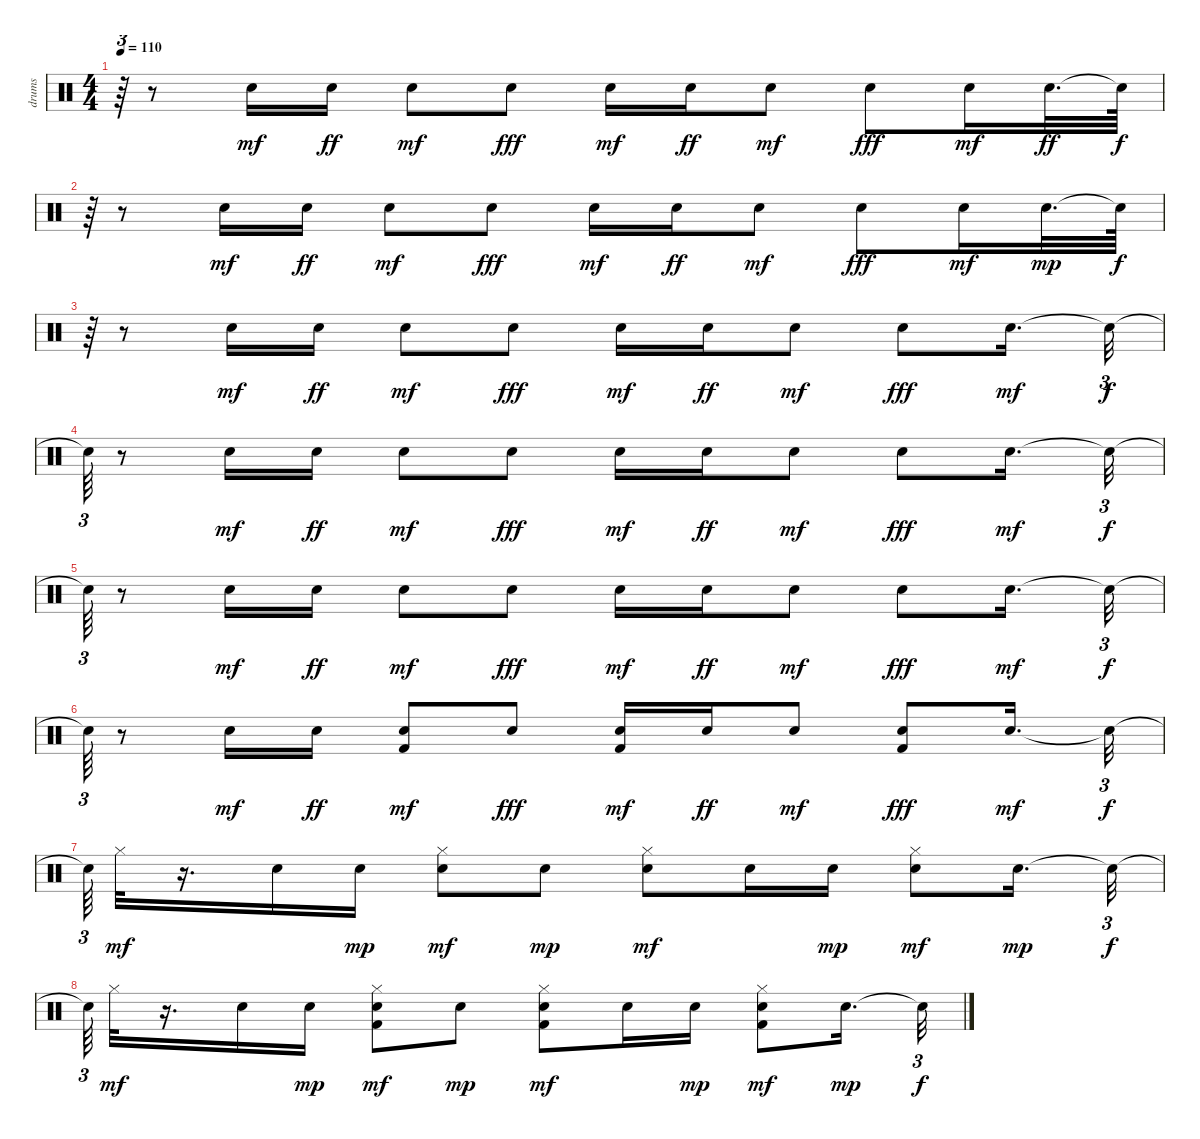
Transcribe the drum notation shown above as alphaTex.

\track ("drums               " "drums     ") {instrument percussion}
\staff {score}
\articulation defaults
\ts (4 4)
\tempo 110
\clef neutral
\ks c
r.64{tu (3 2) dy f} r.8 "Snare (hit) 2".16{dy mf} "Snare (hit) 2".16{dy ff} "Snare (hit) 2".8{dy mf} "Snare (hit) 2".8{dy fff} "Snare (hit) 2".16{dy mf} "Snare (hit) 2".16{dy ff} "Snare (hit) 2".8{dy mf} "Snare (hit) 2".8{dy fff} "Snare (hit) 2".16{dy mf} "Snare (hit) 2".32{d dy ff} "Snare (hit)"{t}.64{dy f} |
r.64{tu (3 2)} r.8 "Snare (hit) 2".16{dy mf} "Snare (hit) 2".16{dy ff} "Snare (hit) 2".8{dy mf} "Snare (hit) 2".8{dy fff} "Snare (hit) 2".16{dy mf} "Snare (hit) 2".16{dy ff} "Snare (hit) 2".8{dy mf} "Snare (hit) 2".8{dy fff} "Snare (hit) 2".16{dy mf} "Snare (hit) 2".32{d dy mp} "Snare (hit)"{t}.64{dy f} |
r.64{tu (3 2)} r.8 "Snare (hit) 2".16{dy mf} "Snare (hit) 2".16{dy ff} "Snare (hit) 2".8{dy mf} "Snare (hit) 2".8{dy fff} "Snare (hit) 2".16{dy mf} "Snare (hit) 2".16{dy ff} "Snare (hit) 2".8{dy mf} "Snare (hit) 2".8{dy fff} "Snare (hit) 2".16{d dy mf} "Snare (hit)"{t}.32{tu (3 2) dy f} |
"Snare (hit)"{t}.64{tu (3 2)} r.8 "Snare (hit) 2".16{dy mf} "Snare (hit) 2".16{dy ff} "Snare (hit) 2".8{dy mf} "Snare (hit) 2".8{dy fff} "Snare (hit) 2".16{dy mf} "Snare (hit) 2".16{dy ff} "Snare (hit) 2".8{dy mf} "Snare (hit) 2".8{dy fff} "Snare (hit) 2".16{d dy mf} "Snare (hit)"{t}.32{tu (3 2) dy f} |
"Snare (hit)"{t}.64{tu (3 2)} r.8 "Snare (hit) 2".16{dy mf} "Snare (hit) 2".16{dy ff} "Snare (hit) 2".8{dy mf} "Snare (hit) 2".8{dy fff} "Snare (hit) 2".16{dy mf} "Snare (hit) 2".16{dy ff} "Snare (hit) 2".8{dy mf} "Snare (hit) 2".8{dy fff} "Snare (hit) 2".16{d dy mf} "Snare (hit)"{t}.32{tu (3 2) dy f} |
"Snare (hit)"{t}.64{tu (3 2)} r.8 "Snare (hit) 2".16{dy mf} "Snare (hit) 2".16{dy ff} ("Kick (hit) 2" "Snare (hit) 2").8{dy mf} "Snare (hit) 2".8{dy fff} ("Kick (hit) 2" "Snare (hit) 2").16{dy mf} "Snare (hit) 2".16{dy ff} "Snare (hit) 2".8{dy mf} ("Kick (hit) 2" "Snare (hit) 2").8{dy fff} "Snare (hit) 2".16{d dy mf} "Snare (hit)"{t}.32{tu (3 2) dy f} |
"Snare (hit)"{t}.64{tu (3 2)} "Hi-Hat (closed)".32{dy mf} r.16{d} "Snare (hit) 2".16 "Snare (hit) 2".16{dy mp} ("Snare (hit) 2" "Hi-Hat (closed)").8{dy mf} "Snare (hit) 2".8{dy mp} ("Snare (hit) 2" "Hi-Hat (closed)").8{dy mf} "Snare (hit) 2".16 "Snare (hit) 2".16{dy mp} ("Snare (hit) 2" "Hi-Hat (closed)").8{dy mf} "Snare (hit) 2".16{d dy mp} "Snare (hit)"{t}.32{tu (3 2) dy f} |
"Snare (hit)"{t}.64{tu (3 2)} "Hi-Hat (closed)".32{dy mf} r.16{d} "Snare (hit) 2".16 "Snare (hit) 2".16{dy mp} ("Snare (hit) 2" "Kick (hit) 2" "Hi-Hat (closed)").8{dy mf} "Snare (hit) 2".8{dy mp} ("Snare (hit) 2" "Kick (hit) 2" "Hi-Hat (closed)").8{dy mf} "Snare (hit) 2".16 "Snare (hit) 2".16{dy mp} ("Snare (hit) 2" "Kick (hit) 2" "Hi-Hat (closed)").8{dy mf} "Snare (hit) 2".16{d dy mp} "Snare (hit)"{t}.32{tu (3 2) dy f}
